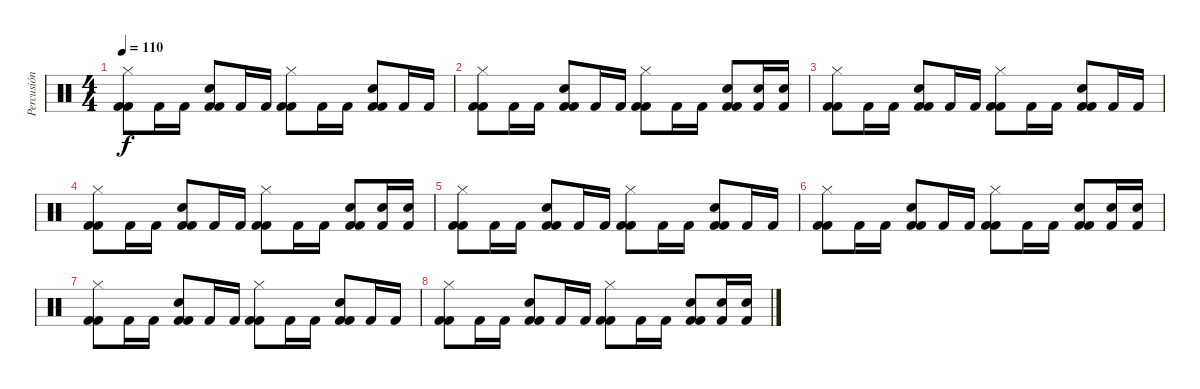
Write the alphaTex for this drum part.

\track ("Percusión" "Percusión") {instrument percussion}
\staff {score}
\articulation defaults
\ts (4 4)
\section ("" "")
\tempo 110
\clef neutral
\ks c
("Hi-Hat (closed)" "Kick (hit) 2" "Kick (hit) 2").8{dy f} "Kick (hit) 2".16 "Kick (hit) 2".16 ("Snare (hit) 2" "Kick (hit) 2" "Kick (hit) 2").8 "Kick (hit) 2".16 "Kick (hit) 2".16 ("Hi-Hat (closed)" "Kick (hit) 2" "Kick (hit) 2").8 "Kick (hit) 2".16 "Kick (hit) 2".16 ("Snare (hit) 2" "Kick (hit) 2" "Kick (hit) 2").8 "Kick (hit) 2".16 "Kick (hit) 2".16 |
("Hi-Hat (closed)" "Kick (hit) 2" "Kick (hit) 2").8 "Kick (hit) 2".16 "Kick (hit) 2".16 ("Snare (hit) 2" "Kick (hit) 2" "Kick (hit) 2").8 "Kick (hit) 2".16 "Kick (hit) 2".16 ("Hi-Hat (closed)" "Kick (hit) 2" "Kick (hit) 2").8 "Kick (hit) 2".16 "Kick (hit) 2".16 ("Snare (hit) 2" "Kick (hit) 2" "Kick (hit) 2").8 ("Snare (hit) 2" "Kick (hit) 2").16 ("Snare (hit) 2" "Kick (hit) 2").16 |
("Hi-Hat (closed)" "Kick (hit) 2" "Kick (hit) 2").8 "Kick (hit) 2".16 "Kick (hit) 2".16 ("Snare (hit) 2" "Kick (hit) 2" "Kick (hit) 2").8 "Kick (hit) 2".16 "Kick (hit) 2".16 ("Hi-Hat (closed)" "Kick (hit) 2" "Kick (hit) 2").8 "Kick (hit) 2".16 "Kick (hit) 2".16 ("Snare (hit) 2" "Kick (hit) 2" "Kick (hit) 2").8 "Kick (hit) 2".16 "Kick (hit) 2".16 |
("Hi-Hat (closed)" "Kick (hit) 2" "Kick (hit) 2").8 "Kick (hit) 2".16 "Kick (hit) 2".16 ("Snare (hit) 2" "Kick (hit) 2" "Kick (hit) 2").8 "Kick (hit) 2".16 "Kick (hit) 2".16 ("Hi-Hat (closed)" "Kick (hit) 2" "Kick (hit) 2").8 "Kick (hit) 2".16 "Kick (hit) 2".16 ("Snare (hit) 2" "Kick (hit) 2" "Kick (hit) 2").8 ("Snare (hit) 2" "Kick (hit) 2").16 ("Snare (hit) 2" "Kick (hit) 2").16 |
("Hi-Hat (closed)" "Kick (hit) 2" "Kick (hit) 2").8 "Kick (hit) 2".16 "Kick (hit) 2".16 ("Snare (hit) 2" "Kick (hit) 2" "Kick (hit) 2").8 "Kick (hit) 2".16 "Kick (hit) 2".16 ("Hi-Hat (closed)" "Kick (hit) 2" "Kick (hit) 2").8 "Kick (hit) 2".16 "Kick (hit) 2".16 ("Snare (hit) 2" "Kick (hit) 2" "Kick (hit) 2").8 "Kick (hit) 2".16 "Kick (hit) 2".16 |
("Hi-Hat (closed)" "Kick (hit) 2" "Kick (hit) 2").8 "Kick (hit) 2".16 "Kick (hit) 2".16 ("Snare (hit) 2" "Kick (hit) 2" "Kick (hit) 2").8 "Kick (hit) 2".16 "Kick (hit) 2".16 ("Hi-Hat (closed)" "Kick (hit) 2" "Kick (hit) 2").8 "Kick (hit) 2".16 "Kick (hit) 2".16 ("Snare (hit) 2" "Kick (hit) 2" "Kick (hit) 2").8 ("Snare (hit) 2" "Kick (hit) 2").16 ("Snare (hit) 2" "Kick (hit) 2").16 |
("Hi-Hat (closed)" "Kick (hit) 2" "Kick (hit) 2").8 "Kick (hit) 2".16 "Kick (hit) 2".16 ("Snare (hit) 2" "Kick (hit) 2" "Kick (hit) 2").8 "Kick (hit) 2".16 "Kick (hit) 2".16 ("Hi-Hat (closed)" "Kick (hit) 2" "Kick (hit) 2").8 "Kick (hit) 2".16 "Kick (hit) 2".16 ("Snare (hit) 2" "Kick (hit) 2" "Kick (hit) 2").8 "Kick (hit) 2".16 "Kick (hit) 2".16 |
("Hi-Hat (closed)" "Kick (hit) 2" "Kick (hit) 2").8 "Kick (hit) 2".16 "Kick (hit) 2".16 ("Snare (hit) 2" "Kick (hit) 2" "Kick (hit) 2").8 "Kick (hit) 2".16 "Kick (hit) 2".16 ("Hi-Hat (closed)" "Kick (hit) 2" "Kick (hit) 2").8 "Kick (hit) 2".16 "Kick (hit) 2".16 ("Snare (hit) 2" "Kick (hit) 2" "Kick (hit) 2").8 ("Snare (hit) 2" "Kick (hit) 2").16 ("Snare (hit) 2" "Kick (hit) 2").16
